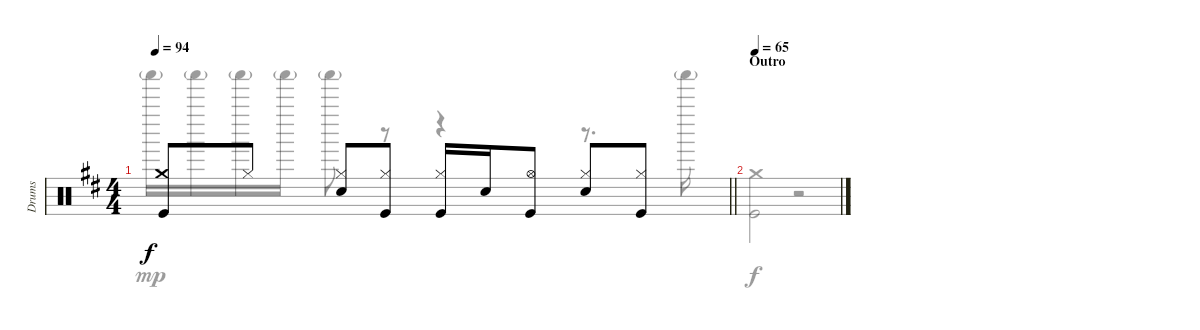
\track ("Drums" "Drums") {instrument percussion}
\staff {score}
\articulation defaults
\voice
\ts (4 4)
\tempo 94
\clef neutral
\barLineRight lightlight
\ks d
("Crash medium (hit)" "Kick (hit)").8{dy f} "Hi-Hat (closed)".8 ("Hi-Hat (closed)" "Snare (hit) 2").8 ("Hi-Hat (closed)" "Kick (hit)").8 ("Hi-Hat (closed)" "Kick (hit)").16 "Snare (hit) 2".16 ("Hi-Hat (open)" "Kick (hit)").8 ("Hi-Hat (closed)" "Snare (hit) 2").8 ("Hi-Hat (closed)" "Kick (hit)").8 |
\section ("" "Outro")
\tempo 65
|
|
|
\voice
\clef neutral
\ottava regular
\simile none
\barLineRight lightlight
\ks d "Shaker (hit)"{g}.16{dy mp} "Shaker (hit)"{g}.16 "Shaker (hit)"{g}.16 "Shaker (hit)"{g}.16 "Shaker (hit)"{g}.8
r.8 r.4 r.8{d} "Shaker (hit)"{g}.16 |
("Crash medium (hit)" "Kick (hit)").2{dy f} r.2 |
|
|
